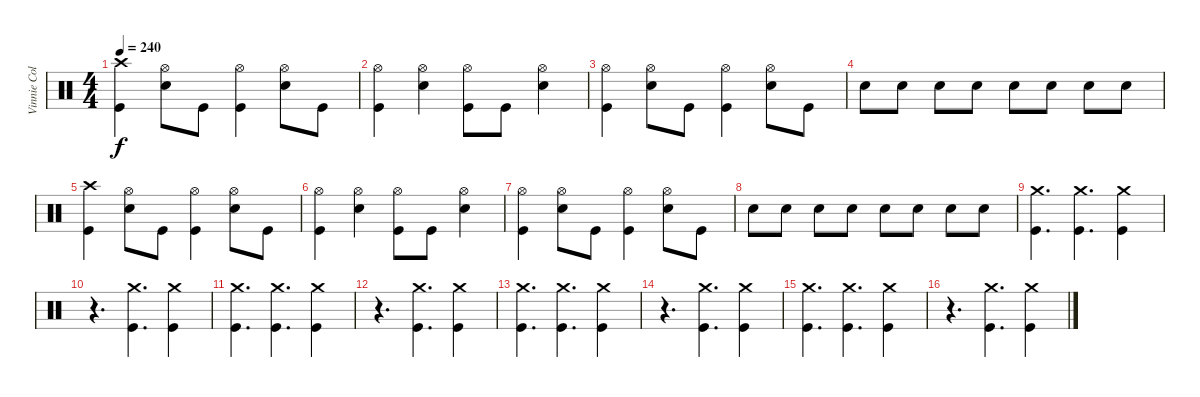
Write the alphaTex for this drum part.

\track ("Vinnie Colaiuta" "Vinnie Col") {instrument percussion}
\staff {score}
\articulation defaults
\ts (4 4)
\tempo 240
\clef neutral
\ks c
("Crash high (hit)" "Kick (hit)").4{dy f} ("Hi-Hat (open)" "Snare (hit) 2").8 "Kick (hit)".8 ("Hi-Hat (open)" "Kick (hit)").4 ("Hi-Hat (open)" "Snare (hit) 2").8 "Kick (hit)".8 |
("Hi-Hat (open)" "Kick (hit)").4 ("Hi-Hat (open)" "Snare (hit) 2").4 ("Hi-Hat (open)" "Kick (hit)").8 "Kick (hit)".8 ("Hi-Hat (open)" "Snare (hit) 2").4 |
("Hi-Hat (open)" "Kick (hit)").4 ("Hi-Hat (open)" "Snare (hit) 2").8 "Kick (hit)".8 ("Hi-Hat (open)" "Kick (hit)").4 ("Hi-Hat (open)" "Snare (hit) 2").8 "Kick (hit)".8 |
"Snare (hit) 2".8 "Snare (hit) 2".8 "Snare (hit) 2".8 "Snare (hit) 2".8 "Snare (hit) 2".8 "Snare (hit) 2".8 "Snare (hit) 2".8 "Snare (hit) 2".8 |
("Crash high (hit)" "Kick (hit)").4 ("Hi-Hat (open)" "Snare (hit) 2").8 "Kick (hit)".8 ("Hi-Hat (open)" "Kick (hit)").4 ("Hi-Hat (open)" "Snare (hit) 2").8 "Kick (hit)".8 |
("Hi-Hat (open)" "Kick (hit)").4 ("Hi-Hat (open)" "Snare (hit) 2").4 ("Hi-Hat (open)" "Kick (hit)").8 "Kick (hit)".8 ("Hi-Hat (open)" "Snare (hit) 2").4 |
("Hi-Hat (open)" "Kick (hit)").4 ("Hi-Hat (open)" "Snare (hit) 2").8 "Kick (hit)".8 ("Hi-Hat (open)" "Kick (hit)").4 ("Hi-Hat (open)" "Snare (hit) 2").8 "Kick (hit)".8 |
"Snare (hit) 2".8 "Snare (hit) 2".8 "Snare (hit) 2".8 "Snare (hit) 2".8 "Snare (hit) 2".8 "Snare (hit) 2".8 "Snare (hit) 2".8 "Snare (hit) 2".8 |
("Crash medium (hit)" "Kick (hit)").4{d} ("Crash medium (hit)" "Kick (hit)").4{d} ("Crash medium (hit)" "Kick (hit)").4 |
r.4{d} ("Crash medium (hit)" "Kick (hit)").4{d} ("Crash medium (hit)" "Kick (hit)").4 |
("Crash medium (hit)" "Kick (hit)").4{d} ("Crash medium (hit)" "Kick (hit)").4{d} ("Crash medium (hit)" "Kick (hit)").4 |
r.4{d} ("Crash medium (hit)" "Kick (hit)").4{d} ("Crash medium (hit)" "Kick (hit)").4 |
("Crash medium (hit)" "Kick (hit)").4{d} ("Crash medium (hit)" "Kick (hit)").4{d} ("Crash medium (hit)" "Kick (hit)").4 |
r.4{d} ("Crash medium (hit)" "Kick (hit)").4{d} ("Crash medium (hit)" "Kick (hit)").4 |
("Crash medium (hit)" "Kick (hit)").4{d} ("Crash medium (hit)" "Kick (hit)").4{d} ("Crash medium (hit)" "Kick (hit)").4 |
r.4{d} ("Crash medium (hit)" "Kick (hit)").4{d} ("Crash medium (hit)" "Kick (hit)").4
